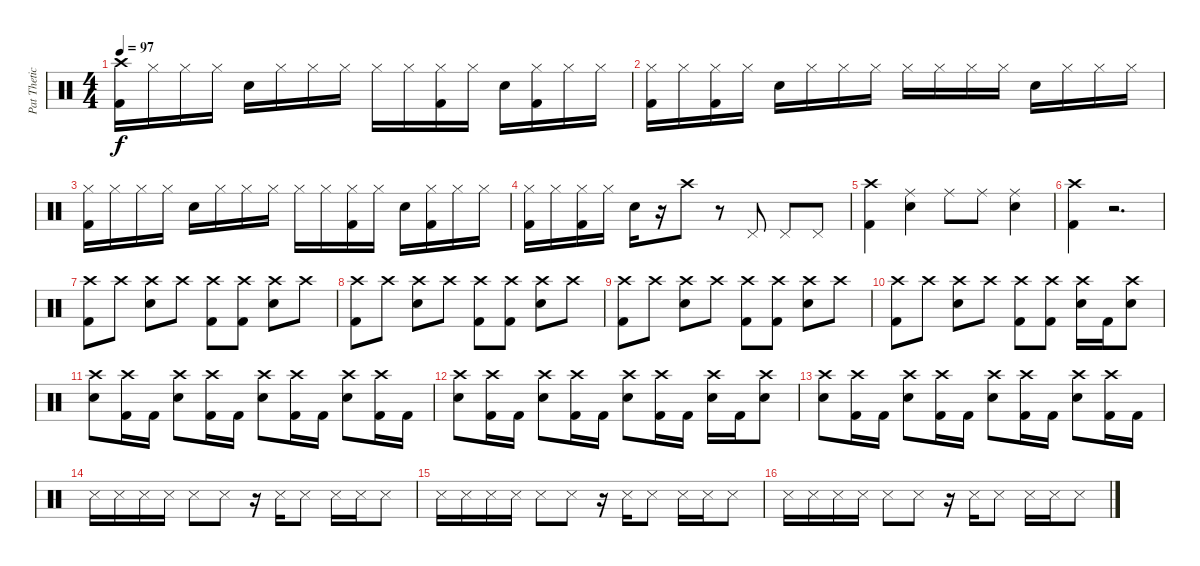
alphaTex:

\track ("Pat Thetic" "Pat Thetic") {instrument percussion}
\staff {score}
\articulation defaults
\ts (4 4)
\tempo 97
\clef neutral
\ks c
("Crash high (hit)" "Kick (hit) 2").16{dy f} "Hi-Hat (closed)".16 "Hi-Hat (closed)".16 "Hi-Hat (closed)".16 "Electric Snare (hit)".16 "Hi-Hat (closed)".16 "Hi-Hat (closed)".16 "Hi-Hat (closed)".16 "Hi-Hat (closed)".16 "Hi-Hat (closed)".16 ("Hi-Hat (closed)" "Kick (hit) 2").16 "Hi-Hat (closed)".16 "Electric Snare (hit)".16 ("Hi-Hat (closed)" "Kick (hit) 2").16 "Hi-Hat (closed)".16 "Hi-Hat (closed)".16 |
("Hi-Hat (closed)" "Kick (hit) 2").16 "Hi-Hat (closed)".16 ("Hi-Hat (closed)" "Kick (hit) 2").16 "Hi-Hat (closed)".16 "Electric Snare (hit)".16 "Hi-Hat (closed)".16 "Hi-Hat (closed)".16 "Hi-Hat (closed)".16 "Hi-Hat (closed)".16 "Hi-Hat (closed)".16 "Hi-Hat (closed)".16 "Hi-Hat (closed)".16 "Electric Snare (hit)".16 "Hi-Hat (closed)".16 "Hi-Hat (closed)".16 "Hi-Hat (closed)".16 |
("Hi-Hat (closed)" "Kick (hit) 2").16 "Hi-Hat (closed)".16 "Hi-Hat (closed)".16 "Hi-Hat (closed)".16 "Electric Snare (hit)".16 "Hi-Hat (closed)".16 "Hi-Hat (closed)".16 "Hi-Hat (closed)".16 "Hi-Hat (closed)".16 "Hi-Hat (closed)".16 ("Hi-Hat (closed)" "Kick (hit) 2").16 "Hi-Hat (closed)".16 "Electric Snare (hit)".16 ("Hi-Hat (closed)" "Kick (hit) 2").16 "Hi-Hat (closed)".16 "Hi-Hat (closed)".16 |
("Hi-Hat (closed)" "Kick (hit) 2").16 "Hi-Hat (closed)".16 ("Hi-Hat (closed)" "Kick (hit) 2").16 "Hi-Hat (closed)".16 "Electric Snare (hit)".16 r.16 "Crash high (hit)".8 r.8 "Pedal Hi-Hat (hit)".8 "Pedal Hi-Hat (hit)".8 "Pedal Hi-Hat (hit)".8 |
("Crash high (hit)" "Kick (hit) 2").4 ("Ride (middle)" "Electric Snare (hit)").4 "Ride (middle)".8 "Ride (middle)".8 ("Ride (middle)" "Electric Snare (hit)").4 |
("Crash high (hit)" "Kick (hit) 2").4 r.2{d} |
("Crash high (hit)" "Kick (hit) 2").8 "Crash high (hit)".8 ("Crash high (hit)" "Electric Snare (hit)").8 "Crash high (hit)".8 ("Crash high (hit)" "Kick (hit) 2").8 ("Crash high (hit)" "Kick (hit) 2").8 ("Crash high (hit)" "Electric Snare (hit)").8 "Crash high (hit)".8 |
("Crash high (hit)" "Kick (hit) 2").8 "Crash high (hit)".8 ("Crash high (hit)" "Electric Snare (hit)").8 "Crash high (hit)".8 ("Crash high (hit)" "Kick (hit) 2").8 ("Crash high (hit)" "Kick (hit) 2").8 ("Crash high (hit)" "Electric Snare (hit)").8 "Crash high (hit)".8 |
("Crash high (hit)" "Kick (hit) 2").8 "Crash high (hit)".8 ("Crash high (hit)" "Electric Snare (hit)").8 "Crash high (hit)".8 ("Crash high (hit)" "Kick (hit) 2").8 ("Crash high (hit)" "Kick (hit) 2").8 ("Crash high (hit)" "Electric Snare (hit)").8 "Crash high (hit)".8 |
("Crash high (hit)" "Kick (hit) 2").8 "Crash high (hit)".8 ("Crash high (hit)" "Electric Snare (hit)").8 "Crash high (hit)".8 ("Crash high (hit)" "Kick (hit) 2").8 ("Crash high (hit)" "Kick (hit) 2").8 ("Crash high (hit)" "Electric Snare (hit)").16 "Kick (hit) 2".16 ("Crash high (hit)" "Electric Snare (hit)").8 |
("Crash high (hit)" "Electric Snare (hit)").8 ("Crash high (hit)" "Kick (hit) 2").16 "Kick (hit) 2".16 ("Crash high (hit)" "Electric Snare (hit)").8 ("Crash high (hit)" "Kick (hit) 2").16 "Kick (hit) 2".16 ("Crash high (hit)" "Electric Snare (hit)").8 ("Crash high (hit)" "Kick (hit) 2").16 "Kick (hit) 2".16 ("Crash high (hit)" "Electric Snare (hit)").8 ("Crash high (hit)" "Kick (hit) 2").16 "Kick (hit) 2".16 |
("Crash high (hit)" "Electric Snare (hit)").8 ("Crash high (hit)" "Kick (hit) 2").16 "Kick (hit) 2".16 ("Crash high (hit)" "Electric Snare (hit)").8 ("Crash high (hit)" "Kick (hit) 2").16 "Kick (hit) 2".16 ("Crash high (hit)" "Electric Snare (hit)").8 ("Crash high (hit)" "Kick (hit) 2").16 "Kick (hit) 2".16 ("Crash high (hit)" "Electric Snare (hit)").16 "Kick (hit) 2".16 ("Crash high (hit)" "Electric Snare (hit)").8 |
("Crash high (hit)" "Electric Snare (hit)").8 ("Crash high (hit)" "Kick (hit) 2").16 "Kick (hit) 2".16 ("Crash high (hit)" "Electric Snare (hit)").8 ("Crash high (hit)" "Kick (hit) 2").16 "Kick (hit) 2".16 ("Crash high (hit)" "Electric Snare (hit)").8 ("Crash high (hit)" "Kick (hit) 2").16 "Kick (hit) 2".16 ("Crash high (hit)" "Electric Snare (hit)").8 ("Crash high (hit)" "Kick (hit) 2").16 "Kick (hit) 2".16 |
"Metronome (hit)".16 "Metronome (hit)".16 "Metronome (hit)".16 "Metronome (hit)".16 "Metronome (hit)".8 "Metronome (hit)".8 r.16 "Metronome (hit)".16 "Metronome (hit)".8 "Metronome (hit)".16 "Metronome (hit)".16 "Metronome (hit)".8 |
"Metronome (hit)".16 "Metronome (hit)".16 "Metronome (hit)".16 "Metronome (hit)".16 "Metronome (hit)".8 "Metronome (hit)".8 r.16 "Metronome (hit)".16 "Metronome (hit)".8 "Metronome (hit)".16 "Metronome (hit)".16 "Metronome (hit)".8 |
"Metronome (hit)".16 "Metronome (hit)".16 "Metronome (hit)".16 "Metronome (hit)".16 "Metronome (hit)".8 "Metronome (hit)".8 r.16 "Metronome (hit)".16 "Metronome (hit)".8 "Metronome (hit)".16 "Metronome (hit)".16 "Metronome (hit)".8
